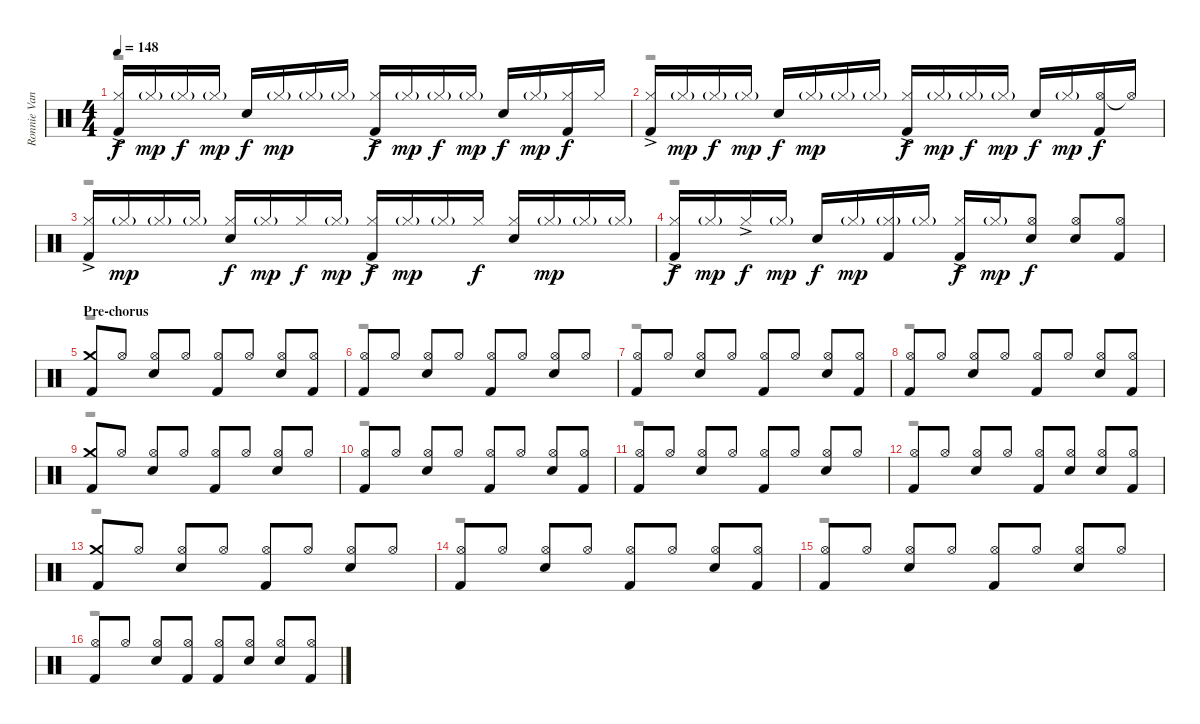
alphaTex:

\track ("Ronnie Vannucci Jr. - Drums" "Ronnie Van") {instrument percussion}
\staff {score}
\articulation defaults
\voice
\ts (4 4)
\tempo 148
\clef neutral
\ks c
("Hi-Hat (closed)"{ac} "Kick (hit) 2").16{dy f} "Hi-Hat (closed)"{g}.16{dy mp} "Hi-Hat (closed)"{g}.16{dy f} "Hi-Hat (closed)"{g}.16{dy mp} "Electric Snare (hit)".16{dy f} "Hi-Hat (closed)"{g}.16{dy mp} "Hi-Hat (closed)"{g}.16 "Hi-Hat (closed)"{g}.16 ("Hi-Hat (closed)"{ac} "Kick (hit) 2"{ac}).16{dy f} "Hi-Hat (closed)"{g}.16{dy mp} "Hi-Hat (closed)"{g}.16{dy f} "Hi-Hat (closed)"{g}.16{dy mp} "Electric Snare (hit)".16{dy f} "Hi-Hat (closed)"{g}.16{dy mp} ("Hi-Hat (closed)" "Kick (hit) 2").16{dy f} "Hi-Hat (closed)".16 |
("Hi-Hat (closed)"{ac} "Kick (hit) 2").16 "Hi-Hat (closed)"{g}.16{dy mp} "Hi-Hat (closed)"{g}.16{dy f} "Hi-Hat (closed)"{g}.16{dy mp} "Electric Snare (hit)".16{dy f} "Hi-Hat (closed)"{g}.16{dy mp} "Hi-Hat (closed)"{g}.16 "Hi-Hat (closed)"{g}.16 ("Hi-Hat (closed)"{ac} "Kick (hit) 2"{ac}).16{dy f} "Hi-Hat (closed)"{g}.16{dy mp} "Hi-Hat (closed)"{g}.16{dy f} "Hi-Hat (closed)"{g}.16{dy mp} "Electric Snare (hit)".16{dy f} "Hi-Hat (closed)"{g}.16{dy mp} ("Hi-Hat (open)" "Kick (hit) 2").16{dy f} "Hi-Hat (open)"{t}.16 |
("Hi-Hat (closed)"{ac} "Kick (hit) 2").16 "Hi-Hat (closed)"{g}.16{dy mp} "Hi-Hat (closed)"{g}.16 "Hi-Hat (closed)"{g}.16 ("Hi-Hat (closed)" "Electric Snare (hit)").16{dy f} "Hi-Hat (closed)"{g}.16{dy mp} "Hi-Hat (closed)".16{dy f} "Hi-Hat (closed)"{g}.16{dy mp} ("Hi-Hat (closed)"{ac} "Kick (hit) 2").16{dy f} "Hi-Hat (closed)"{g}.16{dy mp} "Hi-Hat (closed)"{g}.16 "Hi-Hat (closed)".16{dy f} ("Hi-Hat (closed)" "Electric Snare (hit)").16 "Hi-Hat (closed)"{g}.16{dy mp} "Hi-Hat (closed)"{g}.16 "Hi-Hat (closed)"{g}.16 |
("Hi-Hat (closed)"{ac} "Kick (hit) 2").16{dy f} "Hi-Hat (closed)"{g}.16{dy mp} "Hi-Hat (closed)"{ac}.16{dy f} "Hi-Hat (closed)"{g}.16{dy mp} "Electric Snare (hit)".16{dy f} "Hi-Hat (closed)"{g}.16{dy mp} ("Hi-Hat (closed)"{g} "Kick (hit) 2").16 "Hi-Hat (closed)"{g}.16 ("Hi-Hat (closed)"{ac} "Kick (hit) 2").16{dy f} "Hi-Hat (closed)"{g}.16{dy mp} ("Hi-Hat (open)" "Electric Snare (hit)").8{dy f} ("Hi-Hat (open)" "Electric Snare (hit)").8 ("Hi-Hat (open)" "Kick (hit) 2").8 |
\section ("" "Pre-chorus")
("Crash medium (hit)" "Kick (hit) 2").8 "Hi-Hat (open)".8 ("Hi-Hat (open)" "Electric Snare (hit)").8 "Hi-Hat (open)".8 ("Hi-Hat (open)" "Kick (hit) 2").8 "Hi-Hat (open)".8 ("Hi-Hat (open)" "Electric Snare (hit)").8 ("Hi-Hat (open)" "Kick (hit) 2").8 |
("Hi-Hat (open)" "Kick (hit) 2").8 "Hi-Hat (open)".8 ("Hi-Hat (open)" "Electric Snare (hit)").8 "Hi-Hat (open)".8 ("Hi-Hat (open)" "Kick (hit) 2").8 "Hi-Hat (open)".8 ("Hi-Hat (open)" "Electric Snare (hit)").8 "Hi-Hat (open)".8 |
("Hi-Hat (open)" "Kick (hit) 2").8 "Hi-Hat (open)".8 ("Hi-Hat (open)" "Electric Snare (hit)").8 "Hi-Hat (open)".8 ("Hi-Hat (open)" "Kick (hit) 2").8 "Hi-Hat (open)".8 ("Hi-Hat (open)" "Electric Snare (hit)").8 ("Hi-Hat (open)" "Kick (hit) 2").8 |
("Hi-Hat (open)" "Kick (hit) 2").8 "Hi-Hat (open)".8 ("Hi-Hat (open)" "Electric Snare (hit)").8 "Hi-Hat (open)".8 ("Hi-Hat (open)" "Kick (hit) 2").8 "Hi-Hat (open)".8 ("Hi-Hat (open)" "Electric Snare (hit)").8 ("Hi-Hat (open)" "Kick (hit) 2").8 |
("Crash medium (hit)" "Kick (hit) 2").8 "Hi-Hat (open)".8 ("Hi-Hat (open)" "Electric Snare (hit)").8 "Hi-Hat (open)".8 ("Hi-Hat (open)" "Kick (hit) 2").8 "Hi-Hat (open)".8 ("Hi-Hat (open)" "Electric Snare (hit)").8 "Hi-Hat (open)".8 |
("Hi-Hat (open)" "Kick (hit) 2").8 "Hi-Hat (open)".8 ("Hi-Hat (open)" "Electric Snare (hit)").8 "Hi-Hat (open)".8 ("Hi-Hat (open)" "Kick (hit) 2").8 "Hi-Hat (open)".8 ("Hi-Hat (open)" "Electric Snare (hit)").8 ("Hi-Hat (open)" "Kick (hit) 2").8 |
("Hi-Hat (open)" "Kick (hit) 2").8 "Hi-Hat (open)".8 ("Hi-Hat (open)" "Electric Snare (hit)").8 "Hi-Hat (open)".8 ("Hi-Hat (open)" "Kick (hit) 2").8 "Hi-Hat (open)".8 ("Hi-Hat (open)" "Electric Snare (hit)").8 "Hi-Hat (open)".8 |
("Hi-Hat (open)" "Kick (hit) 2").8 "Hi-Hat (open)".8 ("Hi-Hat (open)" "Electric Snare (hit)").8 "Hi-Hat (open)".8 ("Hi-Hat (open)" "Kick (hit) 2").8 ("Hi-Hat (open)" "Electric Snare (hit)").8 ("Hi-Hat (open)" "Electric Snare (hit)").8 ("Hi-Hat (open)" "Kick (hit) 2").8 |
("Crash medium (hit)" "Kick (hit) 2").8 "Hi-Hat (open)".8 ("Hi-Hat (open)" "Electric Snare (hit)").8 "Hi-Hat (open)".8 ("Hi-Hat (open)" "Kick (hit) 2").8 "Hi-Hat (open)".8 ("Hi-Hat (open)" "Electric Snare (hit)").8 "Hi-Hat (open)".8 |
("Hi-Hat (open)" "Kick (hit) 2").8 "Hi-Hat (open)".8 ("Hi-Hat (open)" "Electric Snare (hit)").8 "Hi-Hat (open)".8 ("Hi-Hat (open)" "Kick (hit) 2").8 "Hi-Hat (open)".8 ("Hi-Hat (open)" "Electric Snare (hit)").8 ("Hi-Hat (open)" "Kick (hit) 2").8 |
("Hi-Hat (open)" "Kick (hit) 2").8 "Hi-Hat (open)".8 ("Hi-Hat (open)" "Electric Snare (hit)").8 "Hi-Hat (open)".8 ("Hi-Hat (open)" "Kick (hit) 2").8 "Hi-Hat (open)".8 ("Hi-Hat (open)" "Electric Snare (hit)").8 "Hi-Hat (open)".8 |
("Hi-Hat (open)" "Kick (hit) 2").8 "Hi-Hat (open)".8 ("Hi-Hat (open)" "Electric Snare (hit)").8 ("Hi-Hat (open)" "Kick (hit) 2").8 ("Hi-Hat (open)" "Kick (hit) 2").8 ("Hi-Hat (open)" "Electric Snare (hit)").8 ("Hi-Hat (open)" "Electric Snare (hit)").8 ("Hi-Hat (open)" "Kick (hit) 2").8
\voice
\clef neutral
\ottava regular
\simile none
\ks c
r.1{dy f} |
r.1 |
r.1 |
r.1 |
r.1 |
r.1 |
r.1 |
r.1 |
r.1 |
r.1 |
r.1 |
r.1 |
r.1 |
r.1 |
r.1 |
r.1
